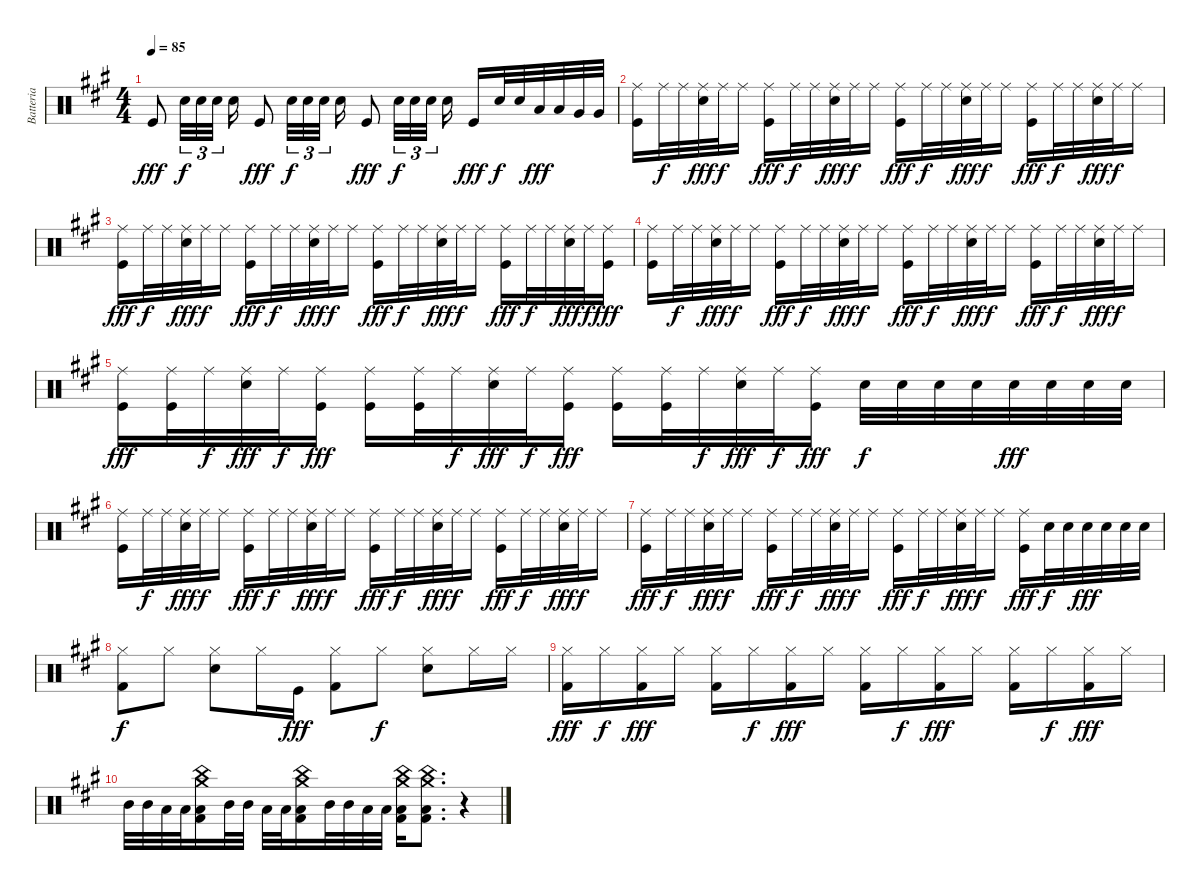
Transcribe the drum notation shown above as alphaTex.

\track ("Batteria" "Batteria") {instrument percussion}
\staff {score}
\articulation defaults
\ts (4 4)
\tempo 85
\clef neutral
\ks a "Kick (hit)".8{dy fff} "Snare (hit) 2".32{tu (3 2) dy f} "Snare (hit) 2".32{tu (3 2)} "Snare (hit) 2".32{tu (3 2) beam splitsecondary} "Snare (hit) 2".16 "Kick (hit)".8{dy fff} "Snare (hit) 2".32{tu (3 2) dy f} "Snare (hit) 2".32{tu (3 2)} "Snare (hit) 2".32{tu (3 2) beam splitsecondary} "Snare (hit) 2".16 "Kick (hit)".8{dy fff} "Snare (hit) 2".32{tu (3 2) dy f} "Snare (hit) 2".32{tu (3 2)} "Snare (hit) 2".32{tu (3 2) beam splitsecondary} "Snare (hit) 2".16 "Kick (hit)".16{dy fff} "Snare (hit) 2".32{dy f} "Snare (hit) 2".32 "Low Tom (hit)".32{dy fff} "Low Tom (hit)".32 "Very Low Tom (hit)".32 "Very Low Tom (hit)".32
|
("Ride (middle)" "Kick (hit)").16 "Ride (middle)".32{dy f} "Ride (middle)".32 ("Ride (middle)" "Snare (hit) 2").32{dy fff} "Ride (middle)".32{dy f} "Ride (middle)".16 ("Ride (middle)" "Kick (hit)").16{dy fff} "Ride (middle)".32{dy f} "Ride (middle)".32 ("Ride (middle)" "Snare (hit) 2").32{dy fff} "Ride (middle)".32{dy f} "Ride (middle)".16 ("Ride (middle)" "Kick (hit)").16{dy fff} "Ride (middle)".32{dy f} "Ride (middle)".32 ("Ride (middle)" "Snare (hit) 2").32{dy fff} "Ride (middle)".32{dy f} "Ride (middle)".16 ("Ride (middle)" "Kick (hit)").16{dy fff} "Ride (middle)".32{dy f} "Ride (middle)".32 ("Ride (middle)" "Snare (hit) 2").32{dy fff} "Ride (middle)".32{dy f} "Ride (middle)".16 |
("Ride (middle)" "Kick (hit)").16{dy fff} "Ride (middle)".32{dy f} "Ride (middle)".32 ("Ride (middle)" "Snare (hit) 2").32{dy fff} "Ride (middle)".32{dy f} "Ride (middle)".16 ("Ride (middle)" "Kick (hit)").16{dy fff} "Ride (middle)".32{dy f} "Ride (middle)".32 ("Ride (middle)" "Snare (hit) 2").32{dy fff} "Ride (middle)".32{dy f} "Ride (middle)".16 ("Ride (middle)" "Kick (hit)").16{dy fff} "Ride (middle)".32{dy f} "Ride (middle)".32 ("Ride (middle)" "Snare (hit) 2").32{dy fff} "Ride (middle)".32{dy f} "Ride (middle)".16 ("Ride (middle)" "Kick (hit)").16{dy fff} "Ride (middle)".32{dy f} "Ride (middle)".32 ("Ride (middle)" "Snare (hit) 2").32{dy fff} "Ride (middle)".32{dy f} ("Ride (middle)" "Kick (hit)").16{dy fff} |
("Ride (middle)" "Kick (hit)").16 "Ride (middle)".32{dy f} "Ride (middle)".32 ("Ride (middle)" "Snare (hit) 2").32{dy fff} "Ride (middle)".32{dy f} "Ride (middle)".16 ("Ride (middle)" "Kick (hit)").16{dy fff} "Ride (middle)".32{dy f} "Ride (middle)".32 ("Ride (middle)" "Snare (hit) 2").32{dy fff} "Ride (middle)".32{dy f} "Ride (middle)".16 ("Ride (middle)" "Kick (hit)").16{dy fff} "Ride (middle)".32{dy f} "Ride (middle)".32 ("Ride (middle)" "Snare (hit) 2").32{dy fff} "Ride (middle)".32{dy f} "Ride (middle)".16 ("Ride (middle)" "Kick (hit)").16{dy fff} "Ride (middle)".32{dy f} "Ride (middle)".32 ("Ride (middle)" "Snare (hit) 2").32{dy fff} "Ride (middle)".32{dy f} "Ride (middle)".16 |
("Ride (middle)" "Kick (hit)").16{dy fff} ("Ride (middle)" "Kick (hit)").32 "Ride (middle)".32{dy f} ("Ride (middle)" "Snare (hit) 2").32{dy fff} "Ride (middle)".32{dy f} ("Ride (middle)" "Kick (hit)").16{dy fff} ("Ride (middle)" "Kick (hit)").16 ("Ride (middle)" "Kick (hit)").32 "Ride (middle)".32{dy f} ("Ride (middle)" "Snare (hit) 2").32{dy fff} "Ride (middle)".32{dy f} ("Ride (middle)" "Kick (hit)").16{dy fff} ("Ride (middle)" "Kick (hit)").16 ("Ride (middle)" "Kick (hit)").32 "Ride (middle)".32{dy f} ("Ride (middle)" "Snare (hit) 2").32{dy fff} "Ride (middle)".32{dy f} ("Ride (middle)" "Kick (hit)").16{dy fff} "Snare (hit) 2".32{dy f} "Snare (hit) 2".32 "Snare (hit) 2".32 "Snare (hit) 2".32 "Snare (hit) 2".32{dy fff} "Snare (hit) 2".32 "Snare (hit) 2".32 "Snare (hit) 2".32 |
("Ride (middle)" "Kick (hit)").16 "Ride (middle)".32{dy f} "Ride (middle)".32 ("Ride (middle)" "Snare (hit) 2").32{dy fff} "Ride (middle)".32{dy f} "Ride (middle)".16 ("Ride (middle)" "Kick (hit)").16{dy fff} "Ride (middle)".32{dy f} "Ride (middle)".32 ("Ride (middle)" "Snare (hit) 2").32{dy fff} "Ride (middle)".32{dy f} "Ride (middle)".16 ("Ride (middle)" "Kick (hit)").16{dy fff} "Ride (middle)".32{dy f} "Ride (middle)".32 ("Ride (middle)" "Snare (hit) 2").32{dy fff} "Ride (middle)".32{dy f} "Ride (middle)".16 ("Ride (middle)" "Kick (hit)").16{dy fff} "Ride (middle)".32{dy f} "Ride (middle)".32 ("Ride (middle)" "Snare (hit) 2").32{dy fff} "Ride (middle)".32{dy f} "Ride (middle)".16 |
("Ride (middle)" "Kick (hit)").16{dy fff} "Ride (middle)".32{dy f} "Ride (middle)".32 ("Ride (middle)" "Snare (hit) 2").32{dy fff} "Ride (middle)".32{dy f} "Ride (middle)".16 ("Ride (middle)" "Kick (hit)").16{dy fff} "Ride (middle)".32{dy f} "Ride (middle)".32 ("Ride (middle)" "Snare (hit) 2").32{dy fff} "Ride (middle)".32{dy f} "Ride (middle)".16 ("Ride (middle)" "Kick (hit)").16{dy fff} "Ride (middle)".32{dy f} "Ride (middle)".32 ("Ride (middle)" "Snare (hit) 2").32{dy fff} "Ride (middle)".32{dy f} "Ride (middle)".16 ("Ride (middle)" "Kick (hit)").16{dy fff} "Snare (hit) 2".32{dy f} "Snare (hit) 2".32 "Snare (hit) 2".32{dy fff} "Snare (hit) 2".32 "Snare (hit) 2".32 "Snare (hit) 2".32 |
("Hi-Hat (closed)" "Kick (hit) 2").8{dy f} "Hi-Hat (closed)".8 ("Hi-Hat (closed)" "Electric Snare (hit)").8 "Hi-Hat (closed)".16 "Kick (hit)".16{dy fff} ("Hi-Hat (closed)" "Kick (hit) 2").8 "Hi-Hat (closed)".8{dy f} ("Hi-Hat (closed)" "Electric Snare (hit)").8 "Hi-Hat (closed)".16 "Hi-Hat (closed)".16 |
("Hi-Hat (closed)" "Kick (hit) 2").16{dy fff} "Hi-Hat (closed)".16{dy f} ("Hi-Hat (closed)" "Kick (hit) 2").16{dy fff} "Hi-Hat (closed)".16 ("Hi-Hat (closed)" "Kick (hit) 2").16 "Hi-Hat (closed)".16{dy f} ("Hi-Hat (closed)" "Kick (hit) 2").16{dy fff} "Hi-Hat (closed)".16 ("Hi-Hat (closed)" "Kick (hit) 2").16 "Hi-Hat (closed)".16{dy f} ("Hi-Hat (closed)" "Kick (hit) 2").16{dy fff} "Hi-Hat (closed)".16 ("Hi-Hat (closed)" "Kick (hit) 2").16 "Hi-Hat (closed)".16{dy f} ("Hi-Hat (closed)" "Kick (hit) 2").16{dy fff} "Hi-Hat (closed)".16 |
"Mid Tom (hit)".32 "Mid Tom (hit)".32 "Low Tom (hit)".32 "Low Tom (hit)".32 ("China (hit)" "Crash medium (hit)" "Low Tom (hit)" "Kick (hit) 2").16 "Mid Tom (hit)".32 "Mid Tom (hit)".32 "Low Tom (hit)".32 "Low Tom (hit)".32 ("China (hit)" "Crash medium (hit)" "Low Tom (hit)" "Kick (hit) 2").16 "Mid Tom (hit)".32 "Mid Tom (hit)".32 "Low Tom (hit)".32 "Low Tom (hit)".32 ("China (hit)" "Crash medium (hit)" "Low Tom (hit)" "Kick (hit) 2").16 ("China (hit)" "Crash medium (hit)" "Low Tom (hit)" "Kick (hit) 2").8{d} r.4
